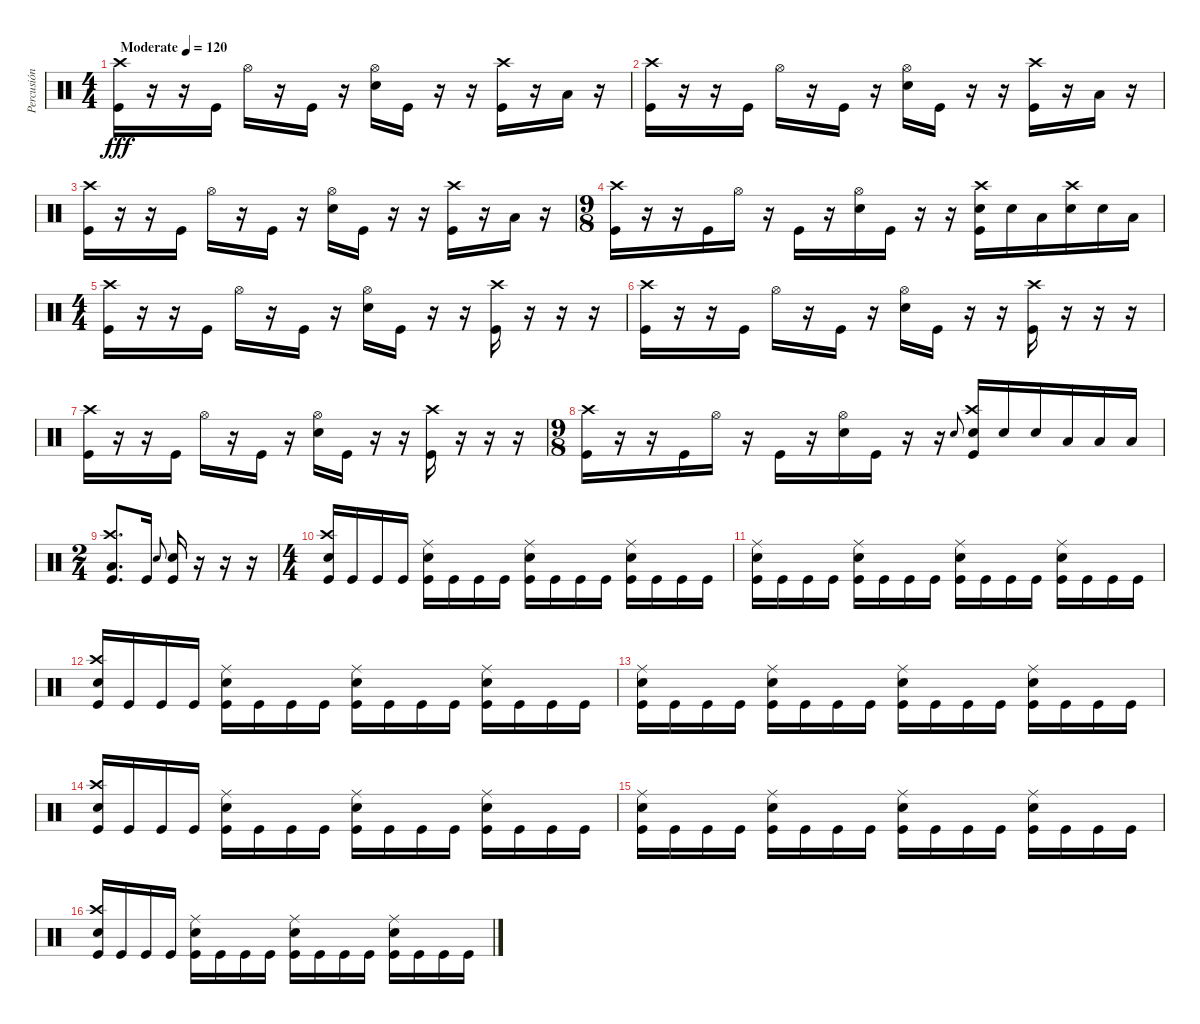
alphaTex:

\track ("Percusión" "Percusión") {instrument percussion}
\staff {score}
\articulation defaults
\ts (4 4)
\tempo (120 "Moderate")
\clef neutral
\ks c
("Kick (hit)" "Crash high (hit)").16{dy fff} r.16 r.16 "Kick (hit)".16 "Hi-Hat (open)".16 r.16 "Kick (hit)".16 r.16 ("Hi-Hat (open)" "Snare (hit) 2").16 "Kick (hit)".16 r.16 r.16 ("Crash high (hit)" "Kick (hit)").16 r.16 "Low Floor Tom (hit)".16 r.16 |
("Kick (hit)" "Crash high (hit)").16 r.16 r.16 "Kick (hit)".16 "Hi-Hat (open)".16 r.16 "Kick (hit)".16 r.16 ("Hi-Hat (open)" "Snare (hit) 2").16 "Kick (hit)".16 r.16 r.16 ("Crash high (hit)" "Kick (hit)").16 r.16 "Low Floor Tom (hit)".16 r.16 |
("Kick (hit)" "Crash high (hit)").16 r.16 r.16 "Kick (hit)".16 "Hi-Hat (open)".16 r.16 "Kick (hit)".16 r.16 ("Hi-Hat (open)" "Snare (hit) 2").16 "Kick (hit)".16 r.16 r.16 ("Crash high (hit)" "Kick (hit)").16 r.16 "Low Floor Tom (hit)".16 r.16 |
\ts (9 8)
("Kick (hit)" "Crash high (hit)").16 r.16 r.16 "Kick (hit)".16 "Hi-Hat (open)".16 r.16 "Kick (hit)".16 r.16 ("Hi-Hat (open)" "Snare (hit) 2").16 "Kick (hit)".16 r.16 r.16 ("Crash high (hit)" "Snare (hit) 2" "Kick (hit)").16 "Snare (hit) 2".16 "Low Floor Tom (hit)".16 ("Crash high (hit)" "Snare (hit) 2").16 "Snare (hit) 2".16 "Low Floor Tom (hit)".16 |
\ts (4 4)
("Kick (hit)" "Crash high (hit)").16 r.16 r.16 "Kick (hit)".16 "Hi-Hat (open)".16 r.16 "Kick (hit)".16 r.16 ("Hi-Hat (open)" "Snare (hit) 2").16 "Kick (hit)".16 r.16 r.16 ("Crash high (hit)" "Kick (hit)").16 r.16 r.16 r.16 |
("Kick (hit)" "Crash high (hit)").16 r.16 r.16 "Kick (hit)".16 "Hi-Hat (open)".16 r.16 "Kick (hit)".16 r.16 ("Hi-Hat (open)" "Snare (hit) 2").16 "Kick (hit)".16 r.16 r.16 ("Crash high (hit)" "Kick (hit)").16 r.16 r.16 r.16 |
("Kick (hit)" "Crash high (hit)").16 r.16 r.16 "Kick (hit)".16 "Hi-Hat (open)".16 r.16 "Kick (hit)".16 r.16 ("Hi-Hat (open)" "Snare (hit) 2").16 "Kick (hit)".16 r.16 r.16 ("Crash high (hit)" "Kick (hit)").16 r.16 r.16 r.16 |
\ts (9 8)
("Kick (hit)" "Crash high (hit)").16 r.16 r.16 "Kick (hit)".16 "Hi-Hat (open)".16 r.16 "Kick (hit)".16 r.16 ("Hi-Hat (open)" "Snare (hit) 2").16 "Kick (hit)".16 r.16 r.16 "Snare (hit) 2".8{gr onbeat} ("Crash high (hit)" "Snare (hit) 2" "Kick (hit)").16 "Snare (hit) 2".16 "Snare (hit) 2".16 "Low Floor Tom (hit)".16 "Low Floor Tom (hit)".16 "Low Floor Tom (hit)".16 |
\ts (2 4)
("Crash high (hit)" "Low Floor Tom (hit)" "Kick (hit)").8{d} "Kick (hit)".16 "Snare (hit) 2".8{gr onbeat} ("Snare (hit) 2" "Kick (hit)").16 r.16 r.16 r.16 |
\ts (4 4)
("Crash high (hit)" "Snare (hit) 2" "Kick (hit)").16 "Kick (hit)".16 "Kick (hit)".16 "Kick (hit)".16 ("Ride (middle)" "Snare (hit) 2" "Kick (hit)").16 "Kick (hit)".16 "Kick (hit)".16 "Kick (hit)".16 ("Ride (middle)" "Snare (hit) 2" "Kick (hit)").16 "Kick (hit)".16 "Kick (hit)".16 "Kick (hit)".16 ("Ride (middle)" "Snare (hit) 2" "Kick (hit)").16 "Kick (hit)".16 "Kick (hit)".16 "Kick (hit)".16 |
("Ride (middle)" "Snare (hit) 2" "Kick (hit)").16 "Kick (hit)".16 "Kick (hit)".16 "Kick (hit)".16 ("Ride (middle)" "Snare (hit) 2" "Kick (hit)").16 "Kick (hit)".16 "Kick (hit)".16 "Kick (hit)".16 ("Ride (middle)" "Snare (hit) 2" "Kick (hit)").16 "Kick (hit)".16 "Kick (hit)".16 "Kick (hit)".16 ("Ride (middle)" "Snare (hit) 2" "Kick (hit)").16 "Kick (hit)".16 "Kick (hit)".16 "Kick (hit)".16 |
("Crash high (hit)" "Snare (hit) 2" "Kick (hit)").16 "Kick (hit)".16 "Kick (hit)".16 "Kick (hit)".16 ("Ride (middle)" "Snare (hit) 2" "Kick (hit)").16 "Kick (hit)".16 "Kick (hit)".16 "Kick (hit)".16 ("Ride (middle)" "Snare (hit) 2" "Kick (hit)").16 "Kick (hit)".16 "Kick (hit)".16 "Kick (hit)".16 ("Ride (middle)" "Snare (hit) 2" "Kick (hit)").16 "Kick (hit)".16 "Kick (hit)".16 "Kick (hit)".16 |
("Ride (middle)" "Snare (hit) 2" "Kick (hit)").16 "Kick (hit)".16 "Kick (hit)".16 "Kick (hit)".16 ("Ride (middle)" "Snare (hit) 2" "Kick (hit)").16 "Kick (hit)".16 "Kick (hit)".16 "Kick (hit)".16 ("Ride (middle)" "Snare (hit) 2" "Kick (hit)").16 "Kick (hit)".16 "Kick (hit)".16 "Kick (hit)".16 ("Ride (middle)" "Snare (hit) 2" "Kick (hit)").16 "Kick (hit)".16 "Kick (hit)".16 "Kick (hit)".16 |
("Crash high (hit)" "Snare (hit) 2" "Kick (hit)").16 "Kick (hit)".16 "Kick (hit)".16 "Kick (hit)".16 ("Ride (middle)" "Snare (hit) 2" "Kick (hit)").16 "Kick (hit)".16 "Kick (hit)".16 "Kick (hit)".16 ("Ride (middle)" "Snare (hit) 2" "Kick (hit)").16 "Kick (hit)".16 "Kick (hit)".16 "Kick (hit)".16 ("Ride (middle)" "Snare (hit) 2" "Kick (hit)").16 "Kick (hit)".16 "Kick (hit)".16 "Kick (hit)".16 |
("Ride (middle)" "Snare (hit) 2" "Kick (hit)").16 "Kick (hit)".16 "Kick (hit)".16 "Kick (hit)".16 ("Ride (middle)" "Snare (hit) 2" "Kick (hit)").16 "Kick (hit)".16 "Kick (hit)".16 "Kick (hit)".16 ("Ride (middle)" "Snare (hit) 2" "Kick (hit)").16 "Kick (hit)".16 "Kick (hit)".16 "Kick (hit)".16 ("Ride (middle)" "Snare (hit) 2" "Kick (hit)").16 "Kick (hit)".16 "Kick (hit)".16 "Kick (hit)".16 |
("Crash high (hit)" "Snare (hit) 2" "Kick (hit)").16 "Kick (hit)".16 "Kick (hit)".16 "Kick (hit)".16 ("Ride (middle)" "Snare (hit) 2" "Kick (hit)").16 "Kick (hit)".16 "Kick (hit)".16 "Kick (hit)".16 ("Ride (middle)" "Snare (hit) 2" "Kick (hit)").16 "Kick (hit)".16 "Kick (hit)".16 "Kick (hit)".16 ("Ride (middle)" "Snare (hit) 2" "Kick (hit)").16 "Kick (hit)".16 "Kick (hit)".16 "Kick (hit)".16
